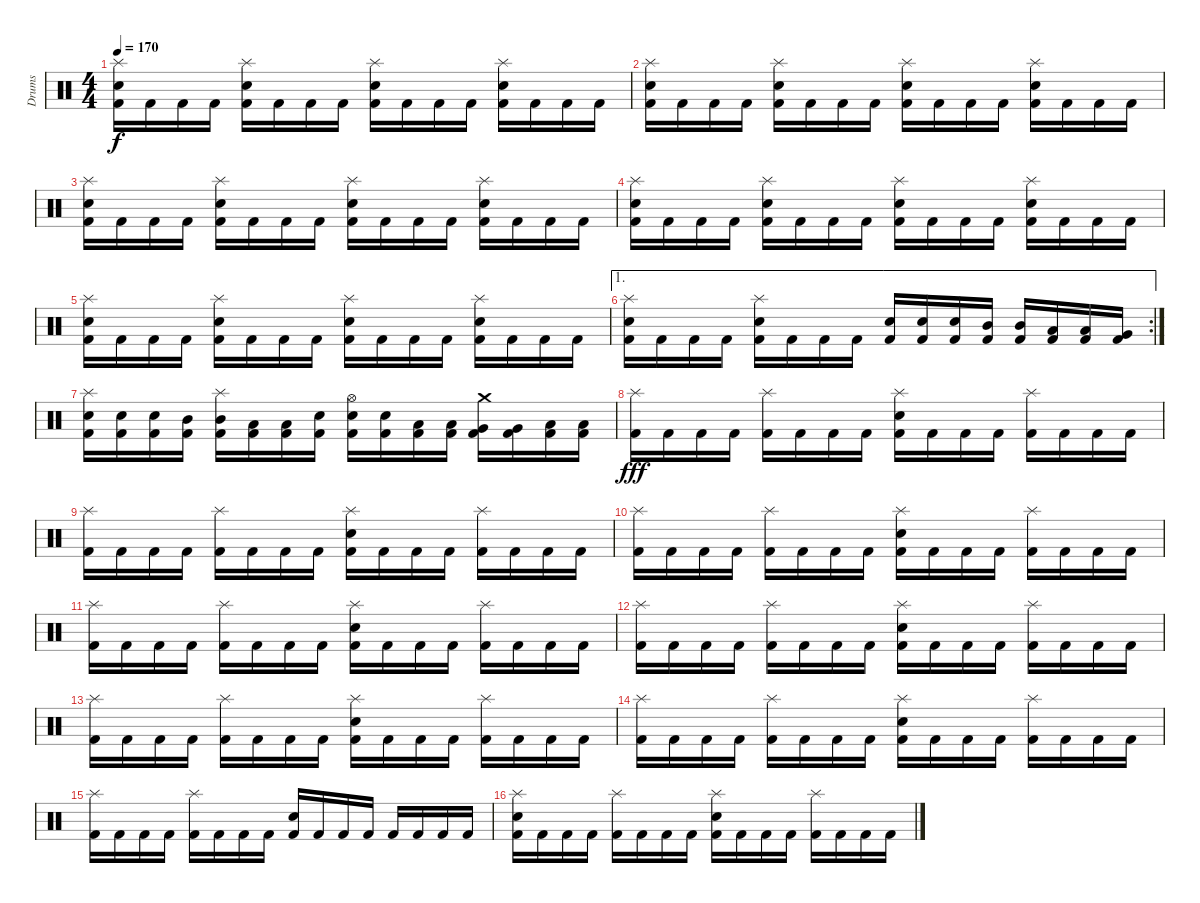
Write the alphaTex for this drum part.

\track ("Drums" "Drums") {instrument percussion}
\staff {score}
\articulation defaults
\ts (4 4)
\tempo 170
\clef neutral
\ks c
("Splash (hit)" "Snare (hit) 2" "Kick (hit) 2").16{dy f} "Kick (hit) 2".16 "Kick (hit) 2".16 "Kick (hit) 2".16 ("Splash (hit)" "Snare (hit) 2" "Kick (hit) 2").16 "Kick (hit) 2".16 "Kick (hit) 2".16 "Kick (hit) 2".16 ("Splash (hit)" "Snare (hit) 2" "Kick (hit) 2").16 "Kick (hit) 2".16 "Kick (hit) 2".16 "Kick (hit) 2".16 ("Splash (hit)" "Snare (hit) 2" "Kick (hit) 2").16 "Kick (hit) 2".16 "Kick (hit) 2".16 "Kick (hit) 2".16 |
("Splash (hit)" "Snare (hit) 2" "Kick (hit) 2").16 "Kick (hit) 2".16 "Kick (hit) 2".16 "Kick (hit) 2".16 ("Splash (hit)" "Snare (hit) 2" "Kick (hit) 2").16 "Kick (hit) 2".16 "Kick (hit) 2".16 "Kick (hit) 2".16 ("Splash (hit)" "Snare (hit) 2" "Kick (hit) 2").16 "Kick (hit) 2".16 "Kick (hit) 2".16 "Kick (hit) 2".16 ("Splash (hit)" "Snare (hit) 2" "Kick (hit) 2").16 "Kick (hit) 2".16 "Kick (hit) 2".16 "Kick (hit) 2".16 |
("Splash (hit)" "Snare (hit) 2" "Kick (hit) 2").16 "Kick (hit) 2".16 "Kick (hit) 2".16 "Kick (hit) 2".16 ("Splash (hit)" "Snare (hit) 2" "Kick (hit) 2").16 "Kick (hit) 2".16 "Kick (hit) 2".16 "Kick (hit) 2".16 ("Splash (hit)" "Snare (hit) 2" "Kick (hit) 2").16 "Kick (hit) 2".16 "Kick (hit) 2".16 "Kick (hit) 2".16 ("Splash (hit)" "Snare (hit) 2" "Kick (hit) 2").16 "Kick (hit) 2".16 "Kick (hit) 2".16 "Kick (hit) 2".16 |
("Splash (hit)" "Snare (hit) 2" "Kick (hit) 2").16 "Kick (hit) 2".16 "Kick (hit) 2".16 "Kick (hit) 2".16 ("Splash (hit)" "Snare (hit) 2" "Kick (hit) 2").16 "Kick (hit) 2".16 "Kick (hit) 2".16 "Kick (hit) 2".16 ("Splash (hit)" "Snare (hit) 2" "Kick (hit) 2").16 "Kick (hit) 2".16 "Kick (hit) 2".16 "Kick (hit) 2".16 ("Splash (hit)" "Snare (hit) 2" "Kick (hit) 2").16 "Kick (hit) 2".16 "Kick (hit) 2".16 "Kick (hit) 2".16 |
("Splash (hit)" "Snare (hit) 2" "Kick (hit) 2").16 "Kick (hit) 2".16 "Kick (hit) 2".16 "Kick (hit) 2".16 ("Splash (hit)" "Snare (hit) 2" "Kick (hit) 2").16 "Kick (hit) 2".16 "Kick (hit) 2".16 "Kick (hit) 2".16 ("Splash (hit)" "Snare (hit) 2" "Kick (hit) 2").16 "Kick (hit) 2".16 "Kick (hit) 2".16 "Kick (hit) 2".16 ("Splash (hit)" "Snare (hit) 2" "Kick (hit) 2").16 "Kick (hit) 2".16 "Kick (hit) 2".16 "Kick (hit) 2".16 |
\ae 1
\rc 2
("Splash (hit)" "Snare (hit) 2" "Kick (hit) 2").16 "Kick (hit) 2".16 "Kick (hit) 2".16 "Kick (hit) 2".16 ("Splash (hit)" "Snare (hit) 2" "Kick (hit) 2").16 "Kick (hit) 2".16 "Kick (hit) 2".16 "Kick (hit) 2".16 ("Snare (hit) 2" "Kick (hit) 2").16 ("Snare (hit) 2" "Kick (hit) 2").16 ("Snare (hit) 2" "Kick (hit) 2").16 ("Mid Tom (hit)" "Kick (hit) 2").16 ("Mid Tom (hit)" "Kick (hit) 2").16 ("Low Tom (hit)" "Kick (hit) 2").16 ("Low Tom (hit)" "Kick (hit) 2").16 ("Very Low Tom (hit)" "Kick (hit) 2").16 |
("Splash (hit)" "Snare (hit) 2" "Kick (hit) 2").16 ("Snare (hit) 2" "Kick (hit) 2").16 ("Snare (hit) 2" "Kick (hit) 2").16 ("Mid Tom (hit)" "Kick (hit) 2").16 ("Splash (hit)" "Mid Tom (hit)" "Kick (hit) 2").16 ("Low Tom (hit)" "Kick (hit) 2").16 ("Low Tom (hit)" "Kick (hit) 2").16 ("Snare (hit) 2" "Kick (hit) 2").16 ("Hi-Hat (open)" "Snare (hit) 2" "Kick (hit) 2").16 ("Snare (hit) 2" "Kick (hit) 2").16 ("Low Tom (hit)" "Kick (hit) 2").16 ("Low Tom (hit)" "Kick (hit) 2").16 ("Crash medium (hit)" "Very Low Tom (hit)" "Kick (hit) 2").16 ("Very Low Tom (hit)" "Kick (hit) 2").16 ("Low Floor Tom (hit)" "Kick (hit) 2").16 ("Low Floor Tom (hit)" "Kick (hit) 2").16 |
("Splash (hit)" "Kick (hit) 2").16{dy fff} "Kick (hit) 2".16 "Kick (hit) 2".16 "Kick (hit) 2".16 ("Splash (hit)" "Kick (hit) 2").16 "Kick (hit) 2".16 "Kick (hit) 2".16 "Kick (hit) 2".16 ("Splash (hit)" "Snare (hit) 2" "Kick (hit) 2").16 "Kick (hit) 2".16 "Kick (hit) 2".16 "Kick (hit) 2".16 ("Splash (hit)" "Kick (hit) 2").16 "Kick (hit) 2".16 "Kick (hit) 2".16 "Kick (hit) 2".16 |
("Splash (hit)" "Kick (hit) 2").16 "Kick (hit) 2".16 "Kick (hit) 2".16 "Kick (hit) 2".16 ("Splash (hit)" "Kick (hit) 2").16 "Kick (hit) 2".16 "Kick (hit) 2".16 "Kick (hit) 2".16 ("Splash (hit)" "Snare (hit) 2" "Kick (hit) 2").16 "Kick (hit) 2".16 "Kick (hit) 2".16 "Kick (hit) 2".16 ("Splash (hit)" "Kick (hit) 2").16 "Kick (hit) 2".16 "Kick (hit) 2".16 "Kick (hit) 2".16 |
("Splash (hit)" "Kick (hit) 2").16 "Kick (hit) 2".16 "Kick (hit) 2".16 "Kick (hit) 2".16 ("Splash (hit)" "Kick (hit) 2").16 "Kick (hit) 2".16 "Kick (hit) 2".16 "Kick (hit) 2".16 ("Splash (hit)" "Snare (hit) 2" "Kick (hit) 2").16 "Kick (hit) 2".16 "Kick (hit) 2".16 "Kick (hit) 2".16 ("Splash (hit)" "Kick (hit) 2").16 "Kick (hit) 2".16 "Kick (hit) 2".16 "Kick (hit) 2".16 |
("Splash (hit)" "Kick (hit) 2").16 "Kick (hit) 2".16 "Kick (hit) 2".16 "Kick (hit) 2".16 ("Splash (hit)" "Kick (hit) 2").16 "Kick (hit) 2".16 "Kick (hit) 2".16 "Kick (hit) 2".16 ("Splash (hit)" "Snare (hit) 2" "Kick (hit) 2").16 "Kick (hit) 2".16 "Kick (hit) 2".16 "Kick (hit) 2".16 ("Splash (hit)" "Kick (hit) 2").16 "Kick (hit) 2".16 "Kick (hit) 2".16 "Kick (hit) 2".16 |
("Splash (hit)" "Kick (hit) 2").16 "Kick (hit) 2".16 "Kick (hit) 2".16 "Kick (hit) 2".16 ("Splash (hit)" "Kick (hit) 2").16 "Kick (hit) 2".16 "Kick (hit) 2".16 "Kick (hit) 2".16 ("Splash (hit)" "Snare (hit) 2" "Kick (hit) 2").16 "Kick (hit) 2".16 "Kick (hit) 2".16 "Kick (hit) 2".16 ("Splash (hit)" "Kick (hit) 2").16 "Kick (hit) 2".16 "Kick (hit) 2".16 "Kick (hit) 2".16 |
("Splash (hit)" "Kick (hit) 2").16 "Kick (hit) 2".16 "Kick (hit) 2".16 "Kick (hit) 2".16 ("Splash (hit)" "Kick (hit) 2").16 "Kick (hit) 2".16 "Kick (hit) 2".16 "Kick (hit) 2".16 ("Splash (hit)" "Snare (hit) 2" "Kick (hit) 2").16 "Kick (hit) 2".16 "Kick (hit) 2".16 "Kick (hit) 2".16 ("Splash (hit)" "Kick (hit) 2").16 "Kick (hit) 2".16 "Kick (hit) 2".16 "Kick (hit) 2".16 |
("Splash (hit)" "Kick (hit) 2").16 "Kick (hit) 2".16 "Kick (hit) 2".16 "Kick (hit) 2".16 ("Splash (hit)" "Kick (hit) 2").16 "Kick (hit) 2".16 "Kick (hit) 2".16 "Kick (hit) 2".16 ("Splash (hit)" "Snare (hit) 2" "Kick (hit) 2").16 "Kick (hit) 2".16 "Kick (hit) 2".16 "Kick (hit) 2".16 ("Splash (hit)" "Kick (hit) 2").16 "Kick (hit) 2".16 "Kick (hit) 2".16 "Kick (hit) 2".16 |
("Splash (hit)" "Kick (hit) 2").16 "Kick (hit) 2".16 "Kick (hit) 2".16 "Kick (hit) 2".16 ("Splash (hit)" "Kick (hit) 2").16 "Kick (hit) 2".16 "Kick (hit) 2".16 "Kick (hit) 2".16 ("Snare (hit) 2" "Kick (hit) 2").16 "Kick (hit) 2".16 "Kick (hit) 2".16 "Kick (hit) 2".16 "Kick (hit) 2".16 "Kick (hit) 2".16 "Kick (hit) 2".16 "Kick (hit) 2".16 |
("Splash (hit)" "Snare (hit) 2" "Kick (hit) 2").16 "Kick (hit) 2".16 "Kick (hit) 2".16 "Kick (hit) 2".16 ("Splash (hit)" "Kick (hit) 2").16 "Kick (hit) 2".16 "Kick (hit) 2".16 "Kick (hit) 2".16 ("Splash (hit)" "Snare (hit) 2" "Kick (hit) 2").16 "Kick (hit) 2".16 "Kick (hit) 2".16 "Kick (hit) 2".16 ("Splash (hit)" "Kick (hit) 2").16 "Kick (hit) 2".16 "Kick (hit) 2".16 "Kick (hit) 2".16
